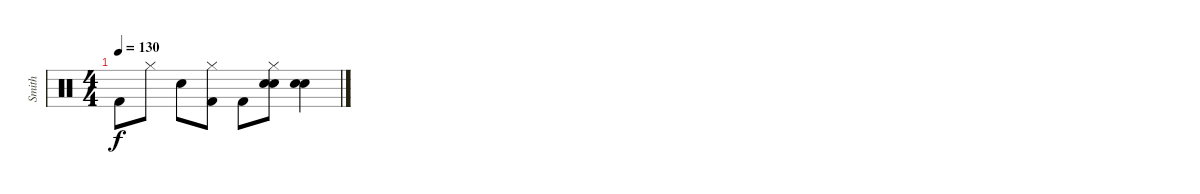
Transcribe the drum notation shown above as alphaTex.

\track ("Smith" "Smith") {instrument percussion}
\staff {score}
\articulation defaults
\ts (4 4)
\tempo 130
\clef neutral
\ks c "Kick (hit) 2".8{dy f} "Hi-Hat (closed)".8 "Snare (hit) 2".8
("Hi-Hat (closed)" "Kick (hit) 2").8 "Kick (hit) 2".8 ("Hand Clap (hit)" "Hi-Hat (closed)" "Snare (hit) 2").8 ("Hand Clap (hit)" "Snare (hit) 2").4
